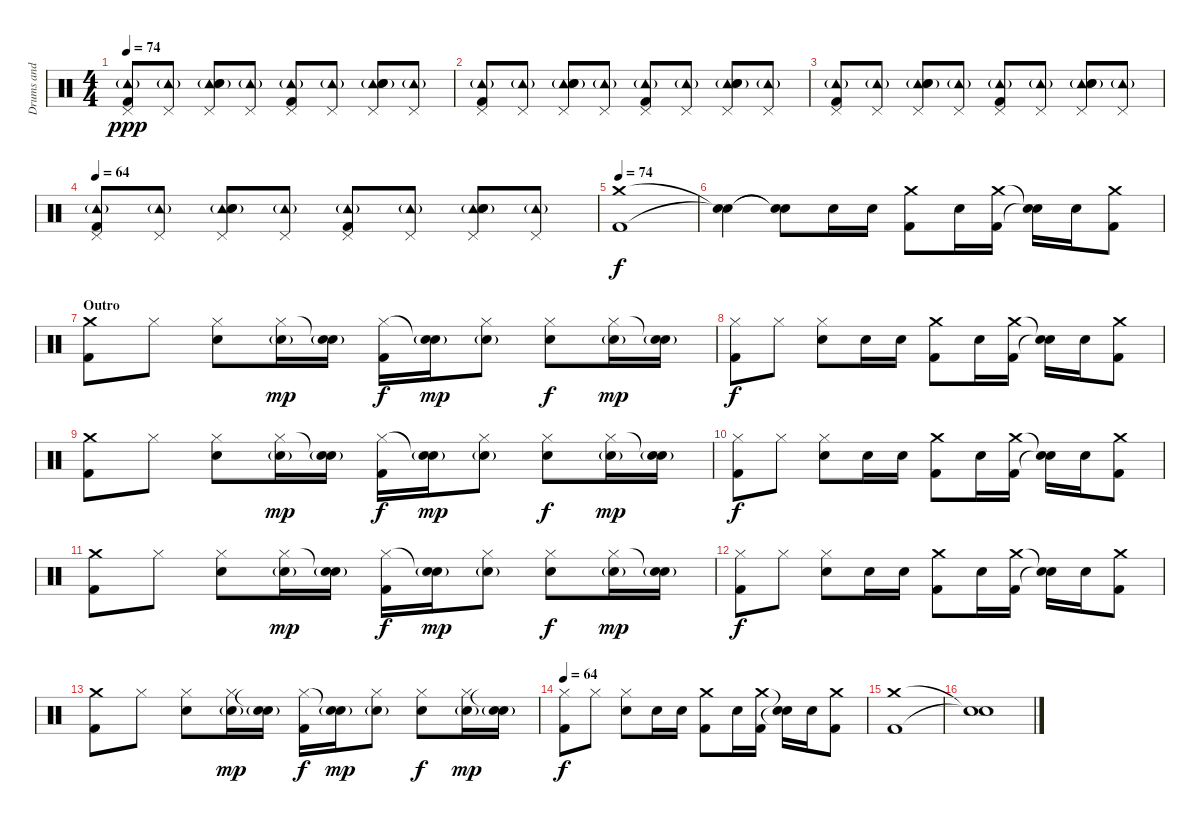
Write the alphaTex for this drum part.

\track ("Drums and Percussion" "Drums and ") {instrument percussion}
\staff {score}
\articulation defaults
\ts (4 4)
\tempo 74
\clef neutral
\ks c
("Tambourine (hit)"{g} "Pedal Hi-Hat (hit)" "Kick (hit) 2").8{dy ppp} ("Tambourine (hit)"{g} "Pedal Hi-Hat (hit)").8 ("Tambourine (hit)"{g} "Pedal Hi-Hat (hit)" "Electric Snare (hit)" "Hand Clap (hit)").8 ("Tambourine (hit)"{g} "Pedal Hi-Hat (hit)").8 ("Tambourine (hit)"{g} "Pedal Hi-Hat (hit)" "Kick (hit) 2").8 ("Tambourine (hit)"{g} "Pedal Hi-Hat (hit)").8 ("Tambourine (hit)"{g} "Pedal Hi-Hat (hit)" "Electric Snare (hit)" "Hand Clap (hit)").8 ("Tambourine (hit)"{g} "Pedal Hi-Hat (hit)").8 |
("Tambourine (hit)"{g} "Pedal Hi-Hat (hit)" "Kick (hit) 2").8 ("Tambourine (hit)"{g} "Pedal Hi-Hat (hit)").8 ("Tambourine (hit)"{g} "Pedal Hi-Hat (hit)" "Electric Snare (hit)" "Hand Clap (hit)").8 ("Tambourine (hit)"{g} "Pedal Hi-Hat (hit)").8 ("Tambourine (hit)"{g} "Pedal Hi-Hat (hit)" "Kick (hit) 2").8 ("Tambourine (hit)"{g} "Pedal Hi-Hat (hit)").8 ("Tambourine (hit)"{g} "Pedal Hi-Hat (hit)" "Electric Snare (hit)" "Hand Clap (hit)").8 ("Tambourine (hit)"{g} "Pedal Hi-Hat (hit)").8 |
("Tambourine (hit)"{g} "Pedal Hi-Hat (hit)" "Kick (hit) 2").8 ("Tambourine (hit)"{g} "Pedal Hi-Hat (hit)").8 ("Tambourine (hit)"{g} "Pedal Hi-Hat (hit)" "Electric Snare (hit)" "Hand Clap (hit)").8 ("Tambourine (hit)"{g} "Pedal Hi-Hat (hit)").8 ("Tambourine (hit)"{g} "Pedal Hi-Hat (hit)" "Kick (hit) 2").8 ("Tambourine (hit)"{g} "Pedal Hi-Hat (hit)").8 ("Tambourine (hit)"{g} "Pedal Hi-Hat (hit)" "Electric Snare (hit)" "Hand Clap (hit)").8 ("Tambourine (hit)"{g} "Pedal Hi-Hat (hit)").8 |
\tempo 64
("Tambourine (hit)"{g} "Pedal Hi-Hat (hit)" "Kick (hit) 2").8 ("Tambourine (hit)"{g} "Pedal Hi-Hat (hit)").8 ("Tambourine (hit)"{g} "Pedal Hi-Hat (hit)" "Electric Snare (hit)" "Hand Clap (hit)").8 ("Tambourine (hit)"{g} "Pedal Hi-Hat (hit)").8 ("Tambourine (hit)"{g} "Pedal Hi-Hat (hit)" "Kick (hit) 2").8 ("Tambourine (hit)"{g} "Pedal Hi-Hat (hit)").8 ("Tambourine (hit)"{g} "Pedal Hi-Hat (hit)" "Electric Snare (hit)" "Hand Clap (hit)").8 ("Tambourine (hit)"{g} "Pedal Hi-Hat (hit)").8 |
\tempo 74
("Crash medium (hit)" "Kick (hit) 2").1{dy f} |
("Snare (hit)"{t} "Snare (hit)"{t}).4 ("Snare (hit)"{t} "Snare (hit)"{t}).8 "Electric Snare (hit)".16 "Electric Snare (hit)".16 ("Crash medium (hit)" "Kick (hit) 2").8 "Electric Snare (hit)".16 ("Crash medium (hit)" "Kick (hit) 2").16 ("Snare (hit)"{t} "Snare (hit)"{t}).16 "Electric Snare (hit)".16 ("Crash medium (hit)" "Kick (hit) 2").8 |
\section ("" "Outro")
("Crash medium (hit)" "Kick (hit) 2").8 "Hi-Hat (closed)".8 ("Hi-Hat (closed)" "Electric Snare (hit)").8 ("Hi-Hat (closed)" "Electric Snare (hit)"{g}).16{dy mp} ("Snare (hit)"{t} "Electric Snare (hit)"{g}).16 ("Hi-Hat (closed)" "Kick (hit) 2").16{dy f} ("Snare (hit)"{t} "Electric Snare (hit)"{g}).16{dy mp} ("Hi-Hat (closed)" "Electric Snare (hit)"{g}).8 ("Hi-Hat (closed)" "Electric Snare (hit)").8{dy f} ("Hi-Hat (closed)" "Electric Snare (hit)"{g}).16{dy mp} ("Snare (hit)"{t} "Electric Snare (hit)"{g}).16 |
("Hi-Hat (closed)" "Kick (hit) 2").8{dy f} "Hi-Hat (closed)".8 ("Hi-Hat (closed)" "Electric Snare (hit)").8 "Electric Snare (hit)".16 "Electric Snare (hit)".16 ("Crash medium (hit)" "Kick (hit) 2").8 "Electric Snare (hit)".16 ("Crash medium (hit)" "Kick (hit) 2").16 ("Snare (hit)"{t} "Snare (hit)"{t}).16 "Electric Snare (hit)".16 ("Crash medium (hit)" "Kick (hit) 2").8 |
("Crash medium (hit)" "Kick (hit) 2").8 "Hi-Hat (closed)".8 ("Hi-Hat (closed)" "Electric Snare (hit)").8 ("Hi-Hat (closed)" "Electric Snare (hit)"{g}).16{dy mp} ("Snare (hit)"{t} "Electric Snare (hit)"{g}).16 ("Hi-Hat (closed)" "Kick (hit) 2").16{dy f} ("Snare (hit)"{t} "Electric Snare (hit)"{g}).16{dy mp} ("Hi-Hat (closed)" "Electric Snare (hit)"{g}).8 ("Hi-Hat (closed)" "Electric Snare (hit)").8{dy f} ("Hi-Hat (closed)" "Electric Snare (hit)"{g}).16{dy mp} ("Snare (hit)"{t} "Electric Snare (hit)"{g}).16 |
("Hi-Hat (closed)" "Kick (hit) 2").8{dy f} "Hi-Hat (closed)".8 ("Hi-Hat (closed)" "Electric Snare (hit)").8 "Electric Snare (hit)".16 "Electric Snare (hit)".16 ("Crash medium (hit)" "Kick (hit) 2").8 "Electric Snare (hit)".16 ("Crash medium (hit)" "Kick (hit) 2").16 ("Snare (hit)"{t} "Snare (hit)"{t}).16 "Electric Snare (hit)".16 ("Crash medium (hit)" "Kick (hit) 2").8 |
("Crash medium (hit)" "Kick (hit) 2").8 "Hi-Hat (closed)".8 ("Hi-Hat (closed)" "Electric Snare (hit)").8 ("Hi-Hat (closed)" "Electric Snare (hit)"{g}).16{dy mp} ("Snare (hit)"{t} "Electric Snare (hit)"{g}).16 ("Hi-Hat (closed)" "Kick (hit) 2").16{dy f} ("Snare (hit)"{t} "Electric Snare (hit)"{g}).16{dy mp} ("Hi-Hat (closed)" "Electric Snare (hit)"{g}).8 ("Hi-Hat (closed)" "Electric Snare (hit)").8{dy f} ("Hi-Hat (closed)" "Electric Snare (hit)"{g}).16{dy mp} ("Snare (hit)"{t} "Electric Snare (hit)"{g}).16 |
("Hi-Hat (closed)" "Kick (hit) 2").8{dy f} "Hi-Hat (closed)".8 ("Hi-Hat (closed)" "Electric Snare (hit)").8 "Electric Snare (hit)".16 "Electric Snare (hit)".16 ("Crash medium (hit)" "Kick (hit) 2").8 "Electric Snare (hit)".16 ("Crash medium (hit)" "Kick (hit) 2").16 ("Snare (hit)"{t} "Snare (hit)"{t}).16 "Electric Snare (hit)".16 ("Crash medium (hit)" "Kick (hit) 2").8 |
("Crash medium (hit)" "Kick (hit) 2").8 "Hi-Hat (closed)".8 ("Hi-Hat (closed)" "Electric Snare (hit)").8 ("Hi-Hat (closed)" "Electric Snare (hit)"{g}).16{dy mp} ("Snare (hit)"{t} "Electric Snare (hit)"{g}).16 ("Hi-Hat (closed)" "Kick (hit) 2").16{dy f} ("Snare (hit)"{t} "Electric Snare (hit)"{g}).16{dy mp} ("Hi-Hat (closed)" "Electric Snare (hit)"{g}).8 ("Hi-Hat (closed)" "Electric Snare (hit)").8{dy f} ("Hi-Hat (closed)" "Electric Snare (hit)"{g}).16{dy mp} ("Snare (hit)"{t} "Electric Snare (hit)"{g}).16 |
\tempo 64
("Hi-Hat (closed)" "Kick (hit) 2").8{dy f} "Hi-Hat (closed)".8 ("Hi-Hat (closed)" "Electric Snare (hit)").8 "Electric Snare (hit)".16 "Electric Snare (hit)".16 ("Crash medium (hit)" "Kick (hit) 2").8 "Electric Snare (hit)".16 ("Crash medium (hit)" "Kick (hit) 2").16 ("Snare (hit)"{t} "Snare (hit)"{t}).16 "Electric Snare (hit)".16 ("Crash medium (hit)" "Kick (hit) 2").8 |
("Crash medium (hit)" "Kick (hit) 2").1{volume 0} |
("Snare (hit)"{t} "Snare (hit)"{t}).1
